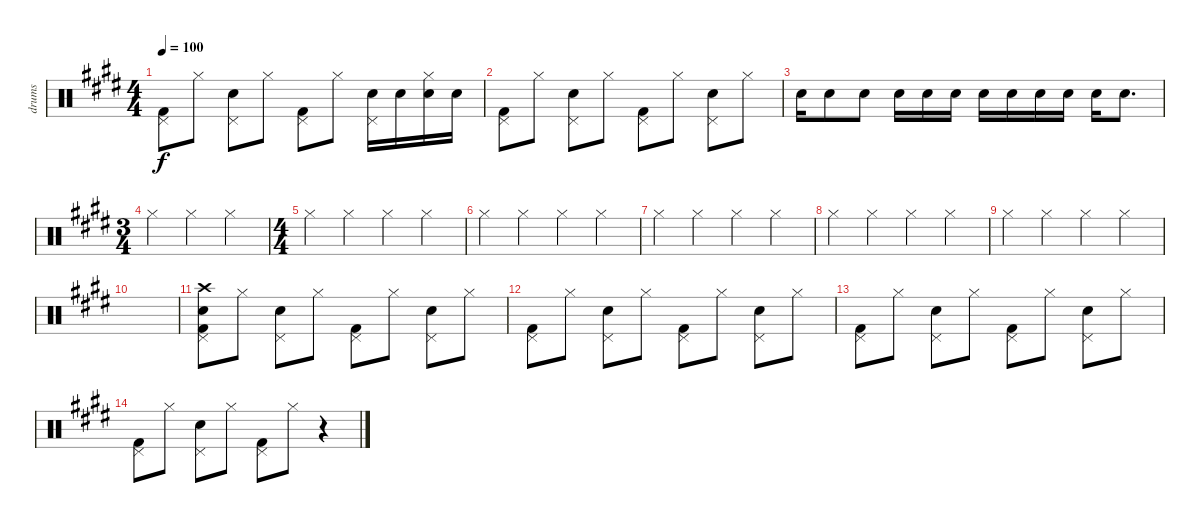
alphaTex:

\track ("drums" "drums") {instrument percussion}
\staff {score}
\articulation defaults
\ts (4 4)
\tempo 100
\clef neutral
\ks e
("Pedal Hi-Hat (hit)" "Kick (hit) 2").8{dy f} "Hi-Hat (closed)".8 ("Snare (hit) 2" "Pedal Hi-Hat (hit)").8 "Hi-Hat (closed)".8 ("Pedal Hi-Hat (hit)" "Kick (hit) 2").8 "Hi-Hat (closed)".8 ("Snare (hit) 2" "Pedal Hi-Hat (hit)").16 "Snare (hit) 2".16 ("Snare (hit) 2" "Hi-Hat (closed)").16 "Snare (hit) 2".16 |
("Pedal Hi-Hat (hit)" "Kick (hit) 2").8 "Hi-Hat (closed)".8 ("Snare (hit) 2" "Pedal Hi-Hat (hit)").8 "Hi-Hat (closed)".8 ("Pedal Hi-Hat (hit)" "Kick (hit) 2").8 "Hi-Hat (closed)".8 ("Snare (hit) 2" "Pedal Hi-Hat (hit)").8 "Hi-Hat (closed)".8 |
"Snare (hit) 2".16 "Snare (hit) 2".8 "Snare (hit) 2".8 "Snare (hit) 2".16 "Snare (hit) 2".16 "Snare (hit) 2".16 "Snare (hit) 2".16 "Snare (hit) 2".16 "Snare (hit) 2".16 "Snare (hit) 2".16 "Snare (hit) 2".16 "Snare (hit) 2".8{d} |
\ts (3 4)
"Hi-Hat (closed)".4 "Hi-Hat (closed)".4 "Hi-Hat (closed)".4 |
\ts (4 4)
"Hi-Hat (closed)".4 "Hi-Hat (closed)".4 "Hi-Hat (closed)".4 "Hi-Hat (closed)".4 |
"Hi-Hat (closed)".4 "Hi-Hat (closed)".4 "Hi-Hat (closed)".4 "Hi-Hat (closed)".4 |
"Hi-Hat (closed)".4 "Hi-Hat (closed)".4 "Hi-Hat (closed)".4 "Hi-Hat (closed)".4 |
"Hi-Hat (closed)".4 "Hi-Hat (closed)".4 "Hi-Hat (closed)".4 "Hi-Hat (closed)".4 |
"Hi-Hat (closed)".4 "Hi-Hat (closed)".4 "Hi-Hat (closed)".4 "Hi-Hat (closed)".4 |
|
("Crash high (hit)" "Snare (hit)" "Pedal Hi-Hat (hit)" "Kick (hit) 2").8 "Hi-Hat (closed)".8 ("Snare (hit) 2" "Pedal Hi-Hat (hit)").8 "Hi-Hat (closed)".8 ("Pedal Hi-Hat (hit)" "Kick (hit) 2").8 "Hi-Hat (closed)".8 ("Snare (hit) 2" "Pedal Hi-Hat (hit)").8 "Hi-Hat (closed)".8 |
("Pedal Hi-Hat (hit)" "Kick (hit) 2").8 "Hi-Hat (closed)".8 ("Snare (hit) 2" "Pedal Hi-Hat (hit)").8 "Hi-Hat (closed)".8 ("Pedal Hi-Hat (hit)" "Kick (hit) 2").8 "Hi-Hat (closed)".8 ("Snare (hit) 2" "Pedal Hi-Hat (hit)").8 "Hi-Hat (closed)".8 |
("Pedal Hi-Hat (hit)" "Kick (hit) 2").8 "Hi-Hat (closed)".8 ("Snare (hit) 2" "Pedal Hi-Hat (hit)").8 "Hi-Hat (closed)".8 ("Pedal Hi-Hat (hit)" "Kick (hit) 2").8 "Hi-Hat (closed)".8 ("Snare (hit) 2" "Pedal Hi-Hat (hit)").8 "Hi-Hat (closed)".8 |
("Pedal Hi-Hat (hit)" "Kick (hit) 2").8 "Hi-Hat (closed)".8 ("Snare (hit) 2" "Pedal Hi-Hat (hit)").8 "Hi-Hat (closed)".8 ("Pedal Hi-Hat (hit)" "Kick (hit) 2").8 "Hi-Hat (closed)".8 r.4
